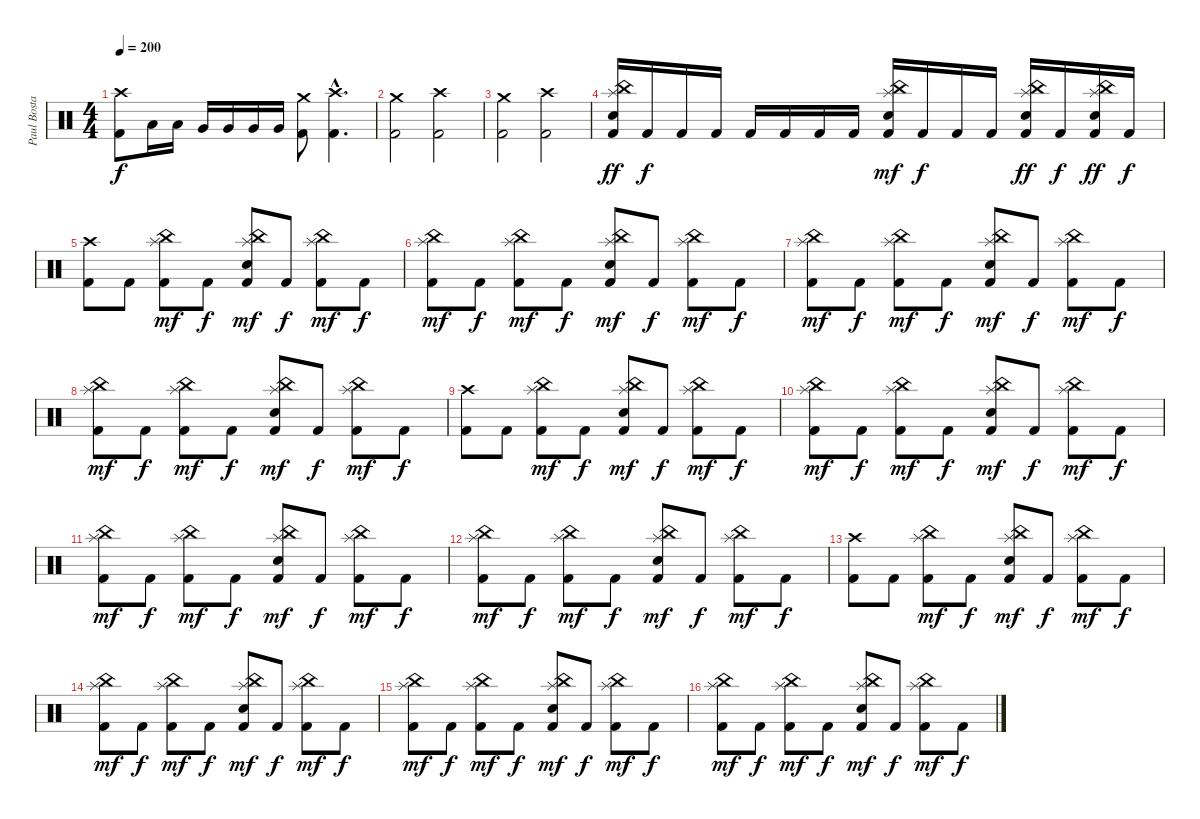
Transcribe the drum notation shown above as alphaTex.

\track ("Paul Bostaph" "Paul Bosta") {instrument percussion}
\staff {score}
\articulation defaults
\ts (4 4)
\tempo 200
\clef neutral
\ks c
("Crash high (hit)" "Kick (hit) 2").8{dy f} "Low Tom (hit)".16 "Low Tom (hit)".16 "Very Low Tom (hit)".16 "Very Low Tom (hit)".16 "Very Low Tom (hit)".16 "Very Low Tom (hit)".16 ("Crash medium (hit)" "Kick (hit) 2").8 ("Crash high (hit)"{hac} "Kick (hit) 2"{hac}).4{d} |
("Crash medium (hit)" "Kick (hit) 2").2 ("Crash high (hit)" "Kick (hit) 2").2 |
("Crash medium (hit)" "Kick (hit) 2").2 ("Crash high (hit)" "Kick (hit) 2").2 |
("China (hit)" "Splash (hit)" "Electric Snare (hit)" "Kick (hit) 2").16{dy ff} "Kick (hit) 2".16{dy f} "Kick (hit) 2".16 "Kick (hit) 2".16 "Kick (hit) 2".16 "Kick (hit) 2".16 "Kick (hit) 2".16 "Kick (hit) 2".16 ("Splash (hit)" "China (hit)" "Electric Snare (hit)" "Kick (hit) 2").16{dy mf} "Kick (hit) 2".16{dy f} "Kick (hit) 2".16 "Kick (hit) 2".16 ("China (hit)" "Splash (hit)" "Electric Snare (hit)" "Kick (hit) 2").16{dy ff} "Kick (hit) 2".16{dy f} ("China (hit)" "Splash (hit)" "Electric Snare (hit)" "Kick (hit) 2").16{dy ff} "Kick (hit) 2".16{dy f} |
("Kick (hit) 2" "Crash high (hit)").8 "Kick (hit) 2".8 ("Kick (hit) 2" "Splash (hit)" "China (hit)").8{dy mf} "Kick (hit) 2".8{dy f} ("Kick (hit) 2" "Electric Snare (hit)" "Splash (hit)" "China (hit)").8{dy mf} "Kick (hit) 2".8{dy f} ("Kick (hit) 2" "Splash (hit)" "China (hit)").8{dy mf} "Kick (hit) 2".8{dy f} |
("Kick (hit) 2" "Splash (hit)" "China (hit)").8{dy mf} "Kick (hit) 2".8{dy f} ("Kick (hit) 2" "Splash (hit)" "China (hit)").8{dy mf} "Kick (hit) 2".8{dy f} ("Kick (hit) 2" "Electric Snare (hit)" "Splash (hit)" "China (hit)").8{dy mf} "Kick (hit) 2".8{dy f} ("Kick (hit) 2" "Splash (hit)" "China (hit)").8{dy mf} "Kick (hit) 2".8{dy f} |
("Kick (hit) 2" "Splash (hit)" "China (hit)").8{dy mf} "Kick (hit) 2".8{dy f} ("Kick (hit) 2" "Splash (hit)" "China (hit)").8{dy mf} "Kick (hit) 2".8{dy f} ("Kick (hit) 2" "Electric Snare (hit)" "Splash (hit)" "China (hit)").8{dy mf} "Kick (hit) 2".8{dy f} ("Kick (hit) 2" "Splash (hit)" "China (hit)").8{dy mf} "Kick (hit) 2".8{dy f} |
("Kick (hit) 2" "Splash (hit)" "China (hit)").8{dy mf} "Kick (hit) 2".8{dy f} ("Kick (hit) 2" "Splash (hit)" "China (hit)").8{dy mf} "Kick (hit) 2".8{dy f} ("Kick (hit) 2" "Electric Snare (hit)" "Splash (hit)" "China (hit)").8{dy mf} "Kick (hit) 2".8{dy f} ("Kick (hit) 2" "Splash (hit)" "China (hit)").8{dy mf} "Kick (hit) 2".8{dy f} |
("Kick (hit) 2" "Crash high (hit)").8 "Kick (hit) 2".8 ("Kick (hit) 2" "Splash (hit)" "China (hit)").8{dy mf} "Kick (hit) 2".8{dy f} ("Kick (hit) 2" "Electric Snare (hit)" "Splash (hit)" "China (hit)").8{dy mf} "Kick (hit) 2".8{dy f} ("Kick (hit) 2" "Splash (hit)" "China (hit)").8{dy mf} "Kick (hit) 2".8{dy f} |
("Kick (hit) 2" "Splash (hit)" "China (hit)").8{dy mf} "Kick (hit) 2".8{dy f} ("Kick (hit) 2" "Splash (hit)" "China (hit)").8{dy mf} "Kick (hit) 2".8{dy f} ("Kick (hit) 2" "Electric Snare (hit)" "Splash (hit)" "China (hit)").8{dy mf} "Kick (hit) 2".8{dy f} ("Kick (hit) 2" "Splash (hit)" "China (hit)").8{dy mf} "Kick (hit) 2".8{dy f} |
("Kick (hit) 2" "Splash (hit)" "China (hit)").8{dy mf} "Kick (hit) 2".8{dy f} ("Kick (hit) 2" "Splash (hit)" "China (hit)").8{dy mf} "Kick (hit) 2".8{dy f} ("Kick (hit) 2" "Electric Snare (hit)" "Splash (hit)" "China (hit)").8{dy mf} "Kick (hit) 2".8{dy f} ("Kick (hit) 2" "Splash (hit)" "China (hit)").8{dy mf} "Kick (hit) 2".8{dy f} |
("Kick (hit) 2" "Splash (hit)" "China (hit)").8{dy mf} "Kick (hit) 2".8{dy f} ("Kick (hit) 2" "Splash (hit)" "China (hit)").8{dy mf} "Kick (hit) 2".8{dy f} ("Kick (hit) 2" "Electric Snare (hit)" "Splash (hit)" "China (hit)").8{dy mf} "Kick (hit) 2".8{dy f} ("Kick (hit) 2" "Splash (hit)" "China (hit)").8{dy mf} "Kick (hit) 2".8{dy f} |
("Kick (hit) 2" "Crash high (hit)").8 "Kick (hit) 2".8 ("Kick (hit) 2" "Splash (hit)" "China (hit)").8{dy mf} "Kick (hit) 2".8{dy f} ("Kick (hit) 2" "Electric Snare (hit)" "Splash (hit)" "China (hit)").8{dy mf} "Kick (hit) 2".8{dy f} ("Kick (hit) 2" "Splash (hit)" "China (hit)").8{dy mf} "Kick (hit) 2".8{dy f} |
("Kick (hit) 2" "Splash (hit)" "China (hit)").8{dy mf} "Kick (hit) 2".8{dy f} ("Kick (hit) 2" "Splash (hit)" "China (hit)").8{dy mf} "Kick (hit) 2".8{dy f} ("Kick (hit) 2" "Electric Snare (hit)" "Splash (hit)" "China (hit)").8{dy mf} "Kick (hit) 2".8{dy f} ("Kick (hit) 2" "Splash (hit)" "China (hit)").8{dy mf} "Kick (hit) 2".8{dy f} |
("Kick (hit) 2" "Splash (hit)" "China (hit)").8{dy mf} "Kick (hit) 2".8{dy f} ("Kick (hit) 2" "Splash (hit)" "China (hit)").8{dy mf} "Kick (hit) 2".8{dy f} ("Kick (hit) 2" "Electric Snare (hit)" "Splash (hit)" "China (hit)").8{dy mf} "Kick (hit) 2".8{dy f} ("Kick (hit) 2" "Splash (hit)" "China (hit)").8{dy mf} "Kick (hit) 2".8{dy f} |
("Kick (hit) 2" "Splash (hit)" "China (hit)").8{dy mf} "Kick (hit) 2".8{dy f} ("Kick (hit) 2" "Splash (hit)" "China (hit)").8{dy mf} "Kick (hit) 2".8{dy f} ("Kick (hit) 2" "Electric Snare (hit)" "Splash (hit)" "China (hit)").8{dy mf} "Kick (hit) 2".8{dy f} ("Kick (hit) 2" "Splash (hit)" "China (hit)").8{dy mf} "Kick (hit) 2".8{dy f}
